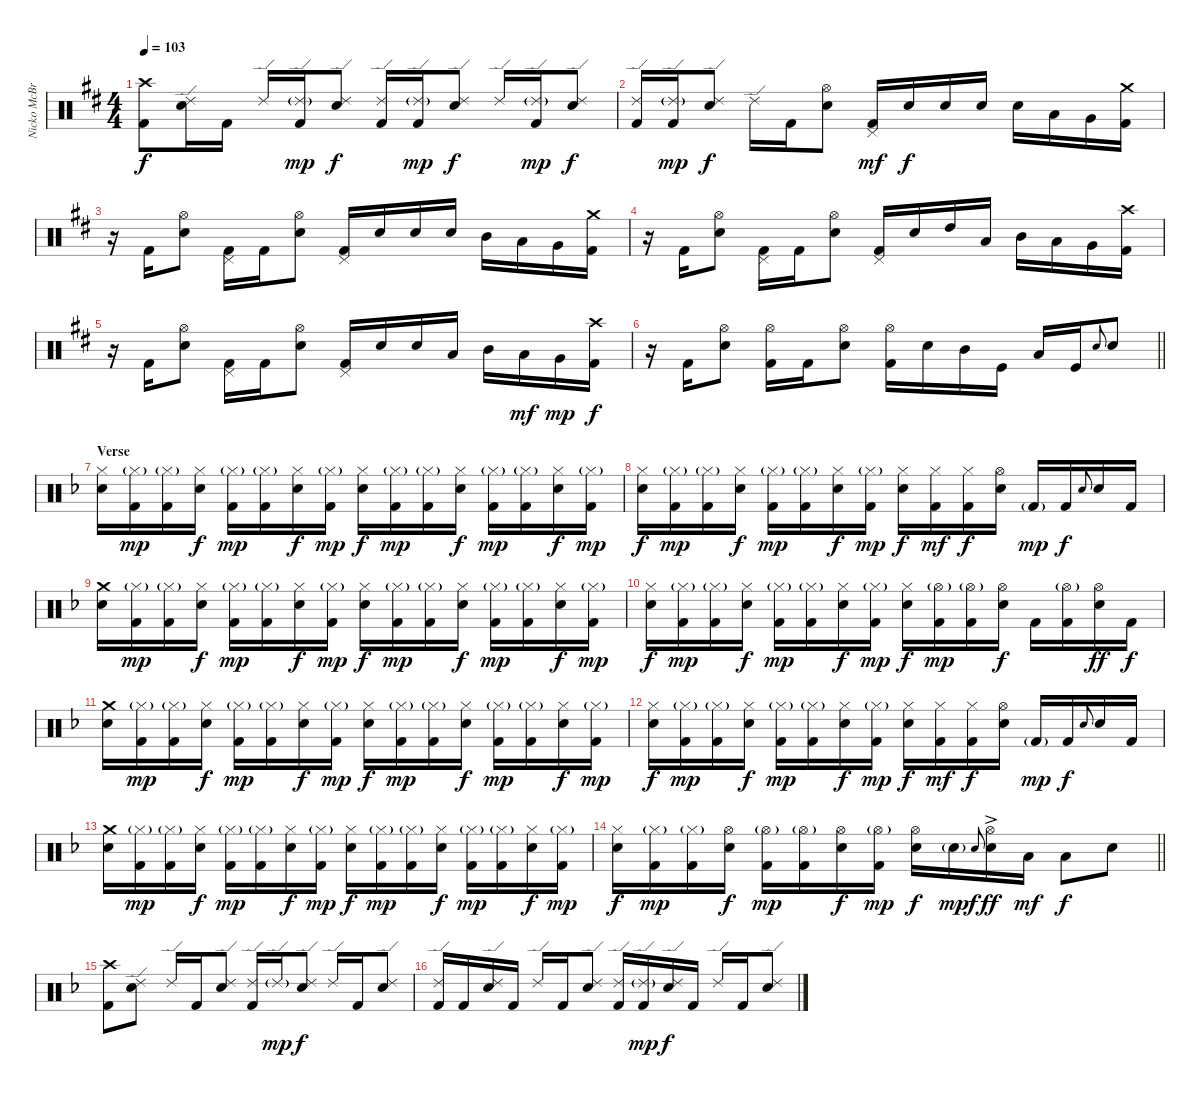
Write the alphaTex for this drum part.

\track ("Nicko McBrain" "Nicko McBr") {instrument percussion}
\staff {score}
\articulation defaults
\ts (4 4)
\tempo 103
\clef neutral
\ks d
("Crash high (hit)" "Kick (hit) 2").8{dy f} ("Ride (edge) 2" "Electric Snare (hit)").16 "Kick (hit) 2".16 "Ride (edge) 2".16 ("Ride (edge) 2"{g} "Kick (hit) 2").16{dy mp} ("Ride (edge) 2" "Electric Snare (hit)").8{dy f} ("Ride (edge) 2" "Kick (hit) 2").16 ("Ride (edge) 2"{g} "Kick (hit) 2").16{dy mp} ("Ride (edge) 2" "Electric Snare (hit)").8{dy f} "Ride (edge) 2".16 ("Ride (edge) 2"{g} "Kick (hit) 2").16{dy mp} ("Ride (edge) 2" "Electric Snare (hit)").8{dy f} |
("Ride (edge) 2" "Kick (hit) 2").16 ("Ride (edge) 2"{g} "Kick (hit) 2").16{dy mp} ("Ride (edge) 2" "Electric Snare (hit)").8{dy f} "Ride (edge) 2".16 "Kick (hit) 2".16 ("Hi-Hat (open)" "Electric Snare (hit)").8 ("Pedal Hi-Hat (hit)" "Kick (hit) 2").16{dy mf} "Electric Snare (hit)".16{dy f} "Electric Snare (hit)".16 "Electric Snare (hit)".16 "Electric Snare (hit)".16 "Low Tom (hit)".16 "Very Low Tom (hit)".16 ("Crash medium (hit)" "Kick (hit) 2").16 |
r.16 "Kick (hit) 2".16 ("Hi-Hat (open)" "Electric Snare (hit)").8 ("Pedal Hi-Hat (hit)" "Kick (hit) 2").16 "Kick (hit) 2".16 ("Hi-Hat (open)" "Electric Snare (hit)").8 ("Pedal Hi-Hat (hit)" "Kick (hit) 2").16 "Electric Snare (hit)".16 "Electric Snare (hit)".16 "Electric Snare (hit)".16 "Mid Tom (hit)".16 "Low Tom (hit)".16 "Very Low Tom (hit)".16 ("Crash medium (hit)" "Kick (hit) 2").16 |
r.16 "Kick (hit) 2".16 ("Hi-Hat (open)" "Electric Snare (hit)").8 ("Pedal Hi-Hat (hit)" "Kick (hit) 2").16 "Kick (hit) 2".16 ("Hi-Hat (open)" "Electric Snare (hit)").8 ("Pedal Hi-Hat (hit)" "Kick (hit) 2").16 "Electric Snare (hit)".16 "High Tom (hit)".16 "Low Floor Tom (hit)".16 "Mid Tom (hit)".16 "Low Tom (hit)".16 "Very Low Tom (hit)".16 ("Crash high (hit)" "Kick (hit) 2").16 |
r.16 "Kick (hit) 2".16 ("Hi-Hat (open)" "Electric Snare (hit)").8 ("Pedal Hi-Hat (hit)" "Kick (hit) 2").16 "Kick (hit) 2".16 ("Hi-Hat (open)" "Electric Snare (hit)").8 ("Pedal Hi-Hat (hit)" "Kick (hit) 2").16 "Electric Snare (hit)".16 "Electric Snare (hit)".16 "Low Floor Tom (hit)".16 "Mid Tom (hit)".16 "Low Tom (hit)".16{dy mf} "Very Low Tom (hit)".16{dy mp} ("Crash high (hit)" "Kick (hit) 2").16{dy f} |
\barLineRight lightlight
r.16 "Kick (hit) 2".16 ("Hi-Hat (open)" "Electric Snare (hit)").8 ("Hi-Hat (open)" "Kick (hit) 2").16 "Kick (hit) 2".16 ("Hi-Hat (open)" "Electric Snare (hit)").8 ("Hi-Hat (open)" "Kick (hit) 2").16 "Electric Snare (hit)".16 "Mid Tom (hit)".16 "Kick (hit)".16 "Low Tom (hit)".16 "Kick (hit)".16 "Electric Snare (hit)".8{gr onbeat} "Electric Snare (hit)".8 |
\section ("" "Verse")
\ks dminor
("Hi-Hat (closed)" "Electric Snare (hit)").16 ("Hi-Hat (closed)"{g} "Kick (hit) 2").16{dy mp} ("Hi-Hat (closed)"{g} "Kick (hit) 2").16 ("Hi-Hat (closed)" "Electric Snare (hit)").16{dy f} ("Hi-Hat (closed)"{g} "Kick (hit) 2").16{dy mp} ("Hi-Hat (closed)"{g} "Kick (hit) 2").16 ("Hi-Hat (closed)" "Electric Snare (hit)").16{dy f} ("Hi-Hat (closed)"{g} "Kick (hit) 2").16{dy mp} ("Hi-Hat (closed)" "Electric Snare (hit)").16{dy f} ("Hi-Hat (closed)"{g} "Kick (hit) 2").16{dy mp} ("Hi-Hat (closed)"{g} "Kick (hit) 2").16 ("Hi-Hat (closed)" "Electric Snare (hit)").16{dy f} ("Hi-Hat (closed)"{g} "Kick (hit) 2").16{dy mp} ("Hi-Hat (closed)"{g} "Kick (hit) 2").16 ("Hi-Hat (closed)" "Electric Snare (hit)").16{dy f} ("Hi-Hat (closed)"{g} "Kick (hit) 2").16{dy mp} |
("Hi-Hat (closed)" "Electric Snare (hit)").16{dy f} ("Hi-Hat (closed)"{g} "Kick (hit) 2").16{dy mp} ("Hi-Hat (closed)"{g} "Kick (hit) 2").16 ("Hi-Hat (closed)" "Electric Snare (hit)").16{dy f} ("Hi-Hat (closed)"{g} "Kick (hit) 2").16{dy mp} ("Hi-Hat (closed)"{g} "Kick (hit) 2").16 ("Hi-Hat (closed)" "Electric Snare (hit)").16{dy f} ("Hi-Hat (closed)"{g} "Kick (hit) 2").16{dy mp} ("Hi-Hat (closed)" "Electric Snare (hit)").16{dy f} ("Hi-Hat (closed)" "Kick (hit) 2").16{dy mf} ("Hi-Hat (closed)" "Kick (hit) 2").16{dy f} ("Hi-Hat (open)" "Electric Snare (hit)").16 "Kick (hit) 2"{g}.16{dy mp} "Kick (hit) 2".16{dy f} "Electric Snare (hit)".8{gr onbeat} "Electric Snare (hit)".16 "Kick (hit) 2".16 |
("Crash medium (hit)" "Electric Snare (hit)").16 ("Hi-Hat (closed)"{g} "Kick (hit) 2").16{dy mp} ("Hi-Hat (closed)"{g} "Kick (hit) 2").16 ("Hi-Hat (closed)" "Electric Snare (hit)").16{dy f} ("Hi-Hat (closed)"{g} "Kick (hit) 2").16{dy mp} ("Hi-Hat (closed)"{g} "Kick (hit) 2").16 ("Hi-Hat (closed)" "Electric Snare (hit)").16{dy f} ("Hi-Hat (closed)"{g} "Kick (hit) 2").16{dy mp} ("Hi-Hat (closed)" "Electric Snare (hit)").16{dy f} ("Hi-Hat (closed)"{g} "Kick (hit) 2").16{dy mp} ("Hi-Hat (closed)"{g} "Kick (hit) 2").16 ("Hi-Hat (closed)" "Electric Snare (hit)").16{dy f} ("Hi-Hat (closed)"{g} "Kick (hit) 2").16{dy mp} ("Hi-Hat (closed)"{g} "Kick (hit) 2").16 ("Hi-Hat (closed)" "Electric Snare (hit)").16{dy f} ("Hi-Hat (closed)"{g} "Kick (hit) 2").16{dy mp} |
("Hi-Hat (closed)" "Electric Snare (hit)").16{dy f} ("Hi-Hat (closed)"{g} "Kick (hit) 2").16{dy mp} ("Hi-Hat (closed)"{g} "Kick (hit) 2").16 ("Hi-Hat (closed)" "Electric Snare (hit)").16{dy f} ("Hi-Hat (closed)"{g} "Kick (hit) 2").16{dy mp} ("Hi-Hat (closed)"{g} "Kick (hit) 2").16 ("Hi-Hat (closed)" "Electric Snare (hit)").16{dy f} ("Hi-Hat (closed)"{g} "Kick (hit) 2").16{dy mp} ("Hi-Hat (closed)" "Electric Snare (hit)").16{dy f} ("Hi-Hat (open)"{g} "Kick (hit) 2").16{dy mp} ("Hi-Hat (open)"{g} "Kick (hit) 2").16 ("Hi-Hat (open)" "Electric Snare (hit)").16{dy f} "Kick (hit) 2".16 ("Hi-Hat (open)"{g} "Kick (hit) 2").16 ("Hi-Hat (open)" "Electric Snare (hit)").16{dy ff} "Kick (hit) 2".16{dy f} |
("Crash medium (hit)" "Electric Snare (hit)").16 ("Hi-Hat (closed)"{g} "Kick (hit) 2").16{dy mp} ("Hi-Hat (closed)"{g} "Kick (hit) 2").16 ("Hi-Hat (closed)" "Electric Snare (hit)").16{dy f} ("Hi-Hat (closed)"{g} "Kick (hit) 2").16{dy mp} ("Hi-Hat (closed)"{g} "Kick (hit) 2").16 ("Hi-Hat (closed)" "Electric Snare (hit)").16{dy f} ("Hi-Hat (closed)"{g} "Kick (hit) 2").16{dy mp} ("Hi-Hat (closed)" "Electric Snare (hit)").16{dy f} ("Hi-Hat (closed)"{g} "Kick (hit) 2").16{dy mp} ("Hi-Hat (closed)"{g} "Kick (hit) 2").16 ("Hi-Hat (closed)" "Electric Snare (hit)").16{dy f} ("Hi-Hat (closed)"{g} "Kick (hit) 2").16{dy mp} ("Hi-Hat (closed)"{g} "Kick (hit) 2").16 ("Hi-Hat (closed)" "Electric Snare (hit)").16{dy f} ("Hi-Hat (closed)"{g} "Kick (hit) 2").16{dy mp} |
("Hi-Hat (closed)" "Electric Snare (hit)").16{dy f} ("Hi-Hat (closed)"{g} "Kick (hit) 2").16{dy mp} ("Hi-Hat (closed)"{g} "Kick (hit) 2").16 ("Hi-Hat (closed)" "Electric Snare (hit)").16{dy f} ("Hi-Hat (closed)"{g} "Kick (hit) 2").16{dy mp} ("Hi-Hat (closed)"{g} "Kick (hit) 2").16 ("Hi-Hat (closed)" "Electric Snare (hit)").16{dy f} ("Hi-Hat (closed)"{g} "Kick (hit) 2").16{dy mp} ("Hi-Hat (closed)" "Electric Snare (hit)").16{dy f} ("Hi-Hat (closed)" "Kick (hit) 2").16{dy mf} ("Hi-Hat (closed)" "Kick (hit) 2").16{dy f} ("Hi-Hat (open)" "Electric Snare (hit)").16 "Kick (hit) 2"{g}.16{dy mp} "Kick (hit) 2".16{dy f} "Electric Snare (hit)".8{gr onbeat} "Electric Snare (hit)".16 "Kick (hit) 2".16 |
("Crash medium (hit)" "Electric Snare (hit)").16 ("Hi-Hat (closed)"{g} "Kick (hit) 2").16{dy mp} ("Hi-Hat (closed)"{g} "Kick (hit) 2").16 ("Hi-Hat (closed)" "Electric Snare (hit)").16{dy f} ("Hi-Hat (closed)"{g} "Kick (hit) 2").16{dy mp} ("Hi-Hat (closed)"{g} "Kick (hit) 2").16 ("Hi-Hat (closed)" "Electric Snare (hit)").16{dy f} ("Hi-Hat (closed)"{g} "Kick (hit) 2").16{dy mp} ("Hi-Hat (closed)" "Electric Snare (hit)").16{dy f} ("Hi-Hat (closed)"{g} "Kick (hit) 2").16{dy mp} ("Hi-Hat (closed)"{g} "Kick (hit) 2").16 ("Hi-Hat (closed)" "Electric Snare (hit)").16{dy f} ("Hi-Hat (closed)"{g} "Kick (hit) 2").16{dy mp} ("Hi-Hat (closed)"{g} "Kick (hit) 2").16 ("Hi-Hat (closed)" "Electric Snare (hit)").16{dy f} ("Hi-Hat (closed)"{g} "Kick (hit) 2").16{dy mp} |
\barLineRight lightlight
("Hi-Hat (closed)" "Electric Snare (hit)").16{dy f} ("Hi-Hat (closed)"{g} "Kick (hit) 2").16{dy mp} ("Hi-Hat (closed)"{g} "Kick (hit) 2").16 ("Hi-Hat (open)" "Electric Snare (hit)").16{dy f} ("Hi-Hat (open)"{g} "Kick (hit) 2").16{dy mp} ("Hi-Hat (open)"{g} "Kick (hit) 2").16 ("Hi-Hat (open)" "Electric Snare (hit)").16{dy f} ("Hi-Hat (open)"{g} "Kick (hit) 2").16{dy mp} ("Hi-Hat (open)" "Electric Snare (hit)").16{dy f} "Electric Snare (hit)"{g}.16{dy mp} "Electric Snare (hit)".8{gr onbeat dy f} ("Hi-Hat (open)"{ac} "Electric Snare (hit)").16{dy ff} "Low Tom (hit)".16{dy mf} "Low Tom (hit)".8{dy f} "Electric Snare (hit)".8 |
\section ("" "")
("Crash high (hit)" "Kick (hit) 2").8 ("Ride (edge) 2" "Electric Snare (hit)").8 "Ride (edge) 2".16 "Kick (hit) 2".16 ("Ride (edge) 2" "Electric Snare (hit)").8 ("Ride (edge) 2" "Kick (hit) 2").16 "Ride (edge) 2"{g}.16{dy mp} ("Ride (edge) 2" "Electric Snare (hit)").8{dy f} "Ride (edge) 2".16 "Kick (hit) 2".16 ("Ride (edge) 2" "Electric Snare (hit)").8 |
("Ride (edge) 2" "Kick (hit) 2").16 "Kick (hit) 2".16 ("Ride (edge) 2" "Electric Snare (hit)").16 "Kick (hit) 2".16 "Ride (edge) 2".16 "Kick (hit) 2".16 ("Ride (edge) 2" "Electric Snare (hit)").8 ("Ride (edge) 2" "Kick (hit) 2").16 ("Ride (edge) 2"{g} "Kick (hit) 2").16{dy mp} ("Ride (edge) 2" "Electric Snare (hit)").16{dy f} "Kick (hit) 2".16 "Ride (edge) 2".16 "Kick (hit) 2".16 ("Ride (edge) 2" "Electric Snare (hit)").8
